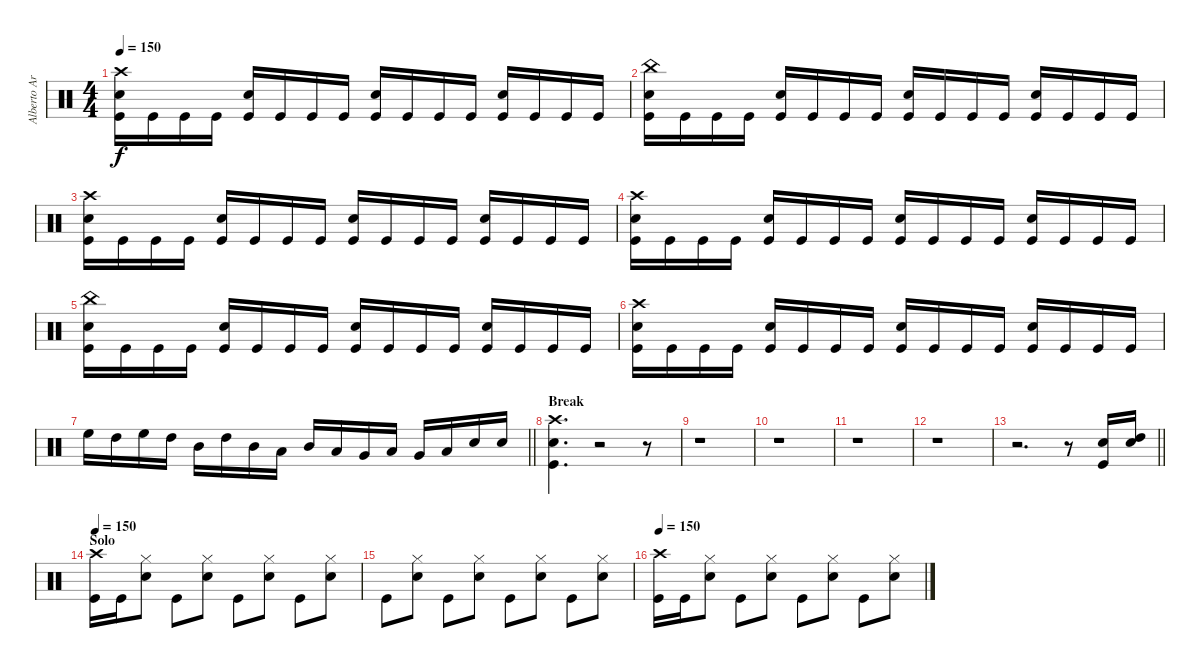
\track ("Alberto Ardines" "Alberto Ar") {instrument percussion}
\staff {score}
\articulation defaults
\ts (4 4)
\tempo 150
\clef neutral
\ks c
("Crash high (hit)" "Kick (hit)" "Snare (hit) 2").16{dy f} "Kick (hit)".16 "Kick (hit)".16 "Kick (hit)".16 ("Kick (hit)" "Snare (hit) 2").16 "Kick (hit)".16 "Kick (hit)".16 "Kick (hit)".16 ("Kick (hit)" "Snare (hit) 2").16 "Kick (hit)".16 "Kick (hit)".16 "Kick (hit)".16 ("Kick (hit)" "Snare (hit) 2").16 "Kick (hit)".16 "Kick (hit)".16 "Kick (hit)".16 |
("China (hit)" "Kick (hit)" "Snare (hit) 2").16 "Kick (hit)".16 "Kick (hit)".16 "Kick (hit)".16 ("Kick (hit)" "Snare (hit) 2").16 "Kick (hit)".16 "Kick (hit)".16 "Kick (hit)".16 ("Kick (hit)" "Snare (hit) 2").16 "Kick (hit)".16 "Kick (hit)".16 "Kick (hit)".16 ("Kick (hit)" "Snare (hit) 2").16 "Kick (hit)".16 "Kick (hit)".16 "Kick (hit)".16 |
("Crash high (hit)" "Kick (hit)" "Snare (hit) 2").16 "Kick (hit)".16 "Kick (hit)".16 "Kick (hit)".16 ("Kick (hit)" "Snare (hit) 2").16 "Kick (hit)".16 "Kick (hit)".16 "Kick (hit)".16 ("Kick (hit)" "Snare (hit) 2").16 "Kick (hit)".16 "Kick (hit)".16 "Kick (hit)".16 ("Kick (hit)" "Snare (hit) 2").16 "Kick (hit)".16 "Kick (hit)".16 "Kick (hit)".16 |
("Crash high (hit)" "Kick (hit)" "Snare (hit) 2").16 "Kick (hit)".16 "Kick (hit)".16 "Kick (hit)".16 ("Kick (hit)" "Snare (hit) 2").16 "Kick (hit)".16 "Kick (hit)".16 "Kick (hit)".16 ("Kick (hit)" "Snare (hit) 2").16 "Kick (hit)".16 "Kick (hit)".16 "Kick (hit)".16 ("Kick (hit)" "Snare (hit) 2").16 "Kick (hit)".16 "Kick (hit)".16 "Kick (hit)".16 |
("China (hit)" "Kick (hit)" "Snare (hit) 2").16 "Kick (hit)".16 "Kick (hit)".16 "Kick (hit)".16 ("Kick (hit)" "Snare (hit) 2").16 "Kick (hit)".16 "Kick (hit)".16 "Kick (hit)".16 ("Kick (hit)" "Snare (hit) 2").16 "Kick (hit)".16 "Kick (hit)".16 "Kick (hit)".16 ("Kick (hit)" "Snare (hit) 2").16 "Kick (hit)".16 "Kick (hit)".16 "Kick (hit)".16 |
("Crash high (hit)" "Kick (hit)" "Snare (hit) 2").16 "Kick (hit)".16 "Kick (hit)".16 "Kick (hit)".16 ("Kick (hit)" "Snare (hit) 2").16 "Kick (hit)".16 "Kick (hit)".16 "Kick (hit)".16 ("Kick (hit)" "Snare (hit) 2").16 "Kick (hit)".16 "Kick (hit)".16 "Kick (hit)".16 ("Kick (hit)" "Snare (hit) 2").16 "Kick (hit)".16 "Kick (hit)".16 "Kick (hit)".16 |
\barLineRight lightlight "High Floor Tom (hit)".16 "High Tom (hit)".16 "High Floor Tom (hit)".16 "High Tom (hit)".16 "Mid Tom (hit)".16 "High Tom (hit)".16 "Mid Tom (hit)".16 "Low Tom (hit)".16 "Mid Tom (hit)".16 "Low Tom (hit)".16 "Very Low Tom (hit)".16 "Low Tom (hit)".16 "Very Low Tom (hit)".16 "Low Floor Tom (hit)".16 "Snare (hit) 2".16 "Snare (hit) 2".16
|
\section ("" "Break")
("Crash high (hit)" "Kick (hit)" "Snare (hit) 2").4{d} r.2 r.8 |
r.1 |
r.1 |
r.1 |
r.1 |
\barLineRight lightlight
r.2{d} r.8 ("Snare (hit) 2" "Kick (hit)").16 ("High Tom (hit)" "Snare (hit) 2").16 |
\section ("" "Solo")
\tempo 150
("Crash high (hit)" "Kick (hit)").16 "Kick (hit)".16 ("Snare (hit) 2" "Hi-Hat (closed)").8 "Kick (hit)".8 ("Snare (hit) 2" "Hi-Hat (closed)").8 "Kick (hit)".8 ("Snare (hit) 2" "Hi-Hat (closed)").8 "Kick (hit)".8 ("Snare (hit) 2" "Hi-Hat (closed)").8 |
"Kick (hit)".8 ("Snare (hit) 2" "Hi-Hat (closed)").8 "Kick (hit)".8 ("Snare (hit) 2" "Hi-Hat (closed)").8 "Kick (hit)".8 ("Snare (hit) 2" "Hi-Hat (closed)").8 "Kick (hit)".8 ("Snare (hit) 2" "Hi-Hat (closed)").8 |
\tempo 150
("Crash high (hit)" "Kick (hit)").16 "Kick (hit)".16 ("Snare (hit) 2" "Hi-Hat (closed)").8 "Kick (hit)".8 ("Snare (hit) 2" "Hi-Hat (closed)").8 "Kick (hit)".8 ("Snare (hit) 2" "Hi-Hat (closed)").8 "Kick (hit)".8 ("Snare (hit) 2" "Hi-Hat (closed)").8
